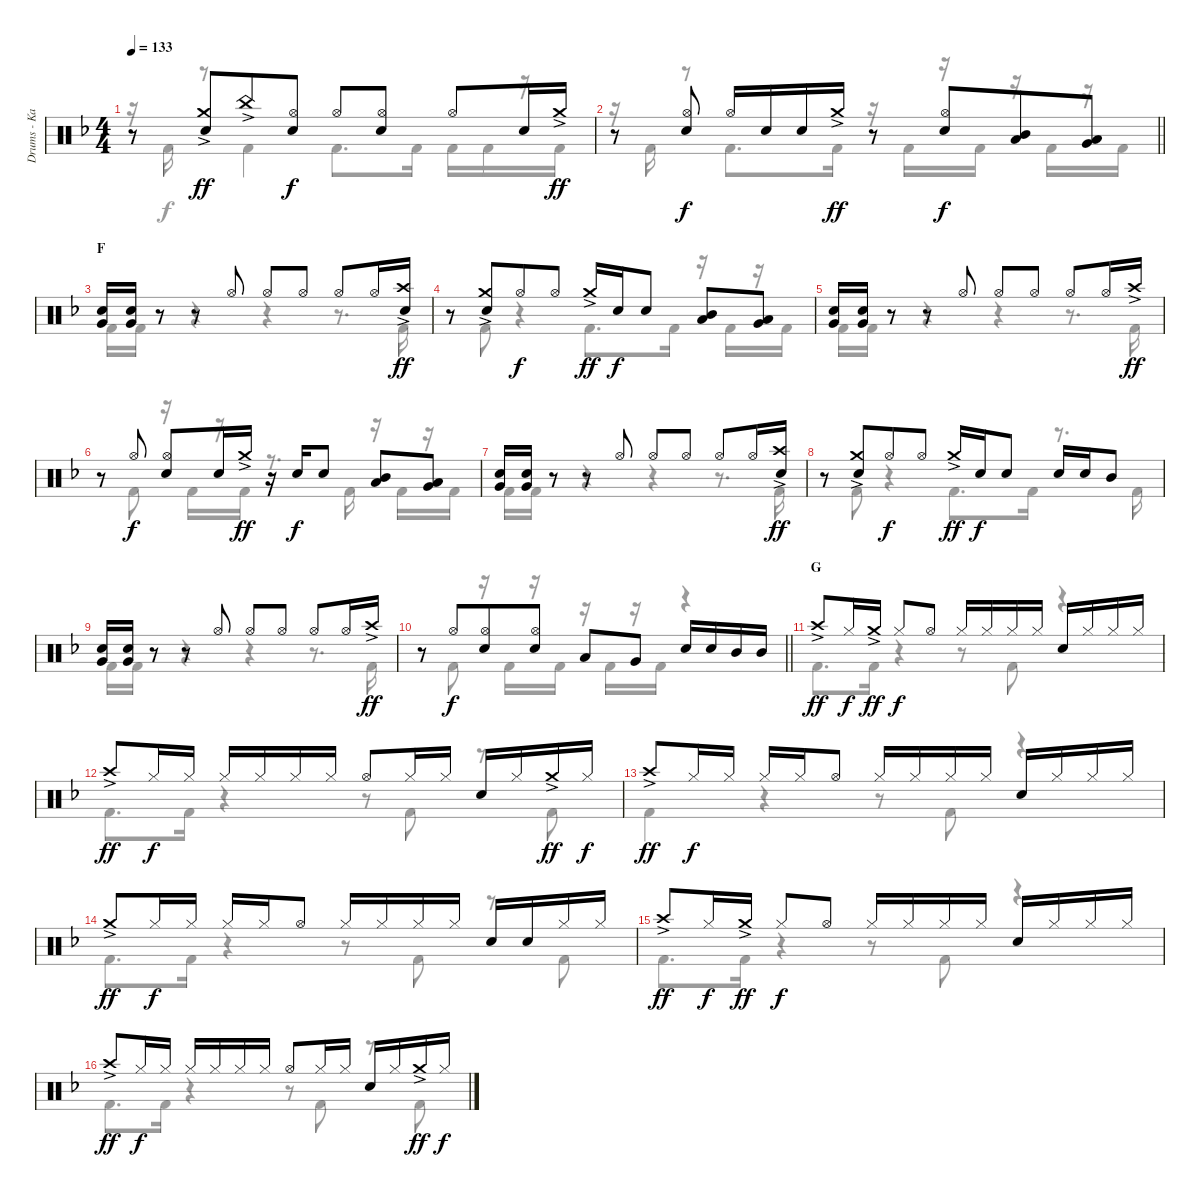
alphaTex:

\track ("Drums - Kai" "Drums - Ka") {instrument percussion}
\staff {score}
\articulation defaults
\voice
\ts (4 4)
\tempo 133
\clef neutral
\ks f
r.8{dy ff} ("Crash medium (hit)"{ac} "Snare (hit) 2").8{beam merge} "China (hit)"{ac}.8 ("Hi-Hat (open)" "Snare (hit) 2").8{dy f} "Hi-Hat (open)".8 ("Hi-Hat (open)" "Snare (hit) 2").8 "Hi-Hat (open)".8 "Snare (hit) 2".16 "Crash medium (hit)"{ac}.16{dy ff} |
\barLineRight lightlight
r.8 ("Hi-Hat (open)" "Snare (hit) 2").8{dy f} "Hi-Hat (open)".16 "Snare (hit) 2".16 "Snare (hit) 2".16 "Crash medium (hit)"{ac}.16{dy ff} r.8 ("Hi-Hat (open)" "Snare (hit) 2").8{dy f beam merge} ("Mid Tom (hit)" "Low Tom (hit)").8 ("Low Tom (hit)" "Very Low Tom (hit)").8 |
\section ("" "F")
("Very Low Tom (hit)" "Snare (hit) 2").16 ("Very Low Tom (hit)" "Snare (hit) 2").16 r.8 r.8 "Hi-Hat (open)".8 "Hi-Hat (open)".8 "Hi-Hat (open)".8 "Hi-Hat (open)".8 "Hi-Hat (open)".16 ("Crash high (hit)"{ac} "Snare (hit) 2").16{dy ff} |
r.8 ("Crash medium (hit)"{ac} "Snare (hit) 2").8{beam merge} "Hi-Hat (open)".8{dy f} "Hi-Hat (open)".8 "Crash medium (hit)"{ac}.16{dy ff} "Snare (hit) 2".16{dy f} "Snare (hit) 2".8 ("Mid Tom (hit)" "Low Tom (hit)").8 ("Low Tom (hit)" "Very Low Tom (hit)").8 |
("Very Low Tom (hit)" "Snare (hit) 2").16 ("Very Low Tom (hit)" "Snare (hit) 2").16 r.8 r.8 "Hi-Hat (open)".8 "Hi-Hat (open)".8 "Hi-Hat (open)".8 "Hi-Hat (open)".8 "Hi-Hat (open)".16 "Crash high (hit)"{ac}.16{dy ff} |
r.8 "Hi-Hat (open)".8{dy f} ("Hi-Hat (open)" "Snare (hit) 2").8 "Snare (hit) 2".16 "Crash medium (hit)"{ac}.16{dy ff} r.16 "Snare (hit) 2".16{dy f} "Snare (hit) 2".8 ("Mid Tom (hit)" "Low Tom (hit)").8 ("Low Tom (hit)" "Very Low Tom (hit)").8 |
("Very Low Tom (hit)" "Snare (hit) 2").16 ("Very Low Tom (hit)" "Snare (hit) 2").16 r.8 r.8 "Hi-Hat (open)".8 "Hi-Hat (open)".8 "Hi-Hat (open)".8 "Hi-Hat (open)".8 "Hi-Hat (open)".16 ("Crash high (hit)"{ac} "Snare (hit) 2").16{dy ff} |
r.8 ("Crash medium (hit)"{ac} "Snare (hit) 2").8{beam merge} "Hi-Hat (open)".8{dy f} "Hi-Hat (open)".8 "Crash medium (hit)"{ac}.16{dy ff} "Snare (hit) 2".16{dy f} "Snare (hit) 2".8 "Snare (hit) 2".16 "Snare (hit) 2".16 "Mid Tom (hit)".8 |
("Very Low Tom (hit)" "Snare (hit) 2").16 ("Very Low Tom (hit)" "Snare (hit) 2").16 r.8 r.8 "Hi-Hat (open)".8 "Hi-Hat (open)".8 "Hi-Hat (open)".8 "Hi-Hat (open)".8 "Hi-Hat (open)".16 "Crash high (hit)"{ac}.16{dy ff} |
\barLineRight lightlight
r.8 "Hi-Hat (open)".8{dy f beam merge} ("Hi-Hat (open)" "Snare (hit) 2").8 ("Hi-Hat (open)" "Snare (hit) 2").8 "Low Tom (hit)".8 "Very Low Tom (hit)".8 "Snare (hit) 2".16 "Snare (hit) 2".16 "Mid Tom (hit)".16 "Mid Tom (hit)".16 |
\section ("" "G")
"Crash high (hit)"{ac}.8{dy ff} "Hi-Hat (closed)".16{dy f} "Crash medium (hit)"{ac}.16{dy ff} "Hi-Hat (closed)".8{dy f} "Hi-Hat (open)".8 "Hi-Hat (closed)".16 "Hi-Hat (closed)".16 "Hi-Hat (closed)".16 "Hi-Hat (closed)".16 "Snare (hit) 2".16 "Hi-Hat (closed)".16 "Hi-Hat (closed)".16 "Hi-Hat (closed)".16 |
"Crash high (hit)"{ac}.8{dy ff} "Hi-Hat (closed)".16{dy f} "Hi-Hat (closed)".16 "Hi-Hat (closed)".16 "Hi-Hat (closed)".16 "Hi-Hat (closed)".16 "Hi-Hat (closed)".16 "Hi-Hat (open)".8 "Hi-Hat (closed)".16 "Hi-Hat (closed)".16 "Snare (hit) 2".16 "Hi-Hat (closed)".16 "Crash medium (hit)"{ac}.16{dy ff} "Hi-Hat (closed)".16{dy f} |
"Crash high (hit)"{ac}.8{dy ff} "Hi-Hat (closed)".16{dy f} "Hi-Hat (closed)".16 "Hi-Hat (closed)".16 "Hi-Hat (closed)".16 "Hi-Hat (open)".8 "Hi-Hat (closed)".16 "Hi-Hat (closed)".16 "Hi-Hat (closed)".16 "Hi-Hat (closed)".16 "Snare (hit) 2".16 "Hi-Hat (closed)".16 "Hi-Hat (closed)".16 "Hi-Hat (closed)".16 |
"Crash medium (hit)"{ac}.8{dy ff} "Hi-Hat (closed)".16{dy f} "Hi-Hat (closed)".16 "Hi-Hat (closed)".16 "Hi-Hat (closed)".16 "Hi-Hat (open)".8 "Hi-Hat (closed)".16 "Hi-Hat (closed)".16 "Hi-Hat (closed)".16 "Hi-Hat (closed)".16 "Snare (hit) 2".16 "Snare (hit) 2".16 "Hi-Hat (closed)".16 "Hi-Hat (closed)".16 |
"Crash high (hit)"{ac}.8{dy ff} "Hi-Hat (closed)".16{dy f} "Crash medium (hit)"{ac}.16{dy ff} "Hi-Hat (closed)".8{dy f} "Hi-Hat (open)".8 "Hi-Hat (closed)".16 "Hi-Hat (closed)".16 "Hi-Hat (closed)".16 "Hi-Hat (closed)".16 "Snare (hit) 2".16 "Hi-Hat (closed)".16 "Hi-Hat (closed)".16 "Hi-Hat (closed)".16 |
"Crash high (hit)"{ac}.8{dy ff} "Hi-Hat (closed)".16{dy f} "Hi-Hat (closed)".16 "Hi-Hat (closed)".16 "Hi-Hat (closed)".16 "Hi-Hat (closed)".16 "Hi-Hat (closed)".16 "Hi-Hat (open)".8 "Hi-Hat (closed)".16 "Hi-Hat (closed)".16 "Snare (hit) 2".16 "Hi-Hat (closed)".16 "Crash medium (hit)"{ac}.16{dy ff} "Hi-Hat (closed)".16{dy f}
\voice
\clef neutral
\ottava regular
\simile none
\ks f
r.16{dy f} "Kick (hit) 2".16 r.8 "Kick (hit) 2".4 "Kick (hit) 2".8{d} "Kick (hit) 2".16 "Kick (hit) 2".16 "Kick (hit) 2".16 r.16 "Kick (hit) 2".16 |
\barLineRight lightlight
r.16 "Kick (hit) 2".16 r.8 "Kick (hit) 2".8{d} "Kick (hit) 2".16 r.16 "Kick (hit) 2".16 r.16 "Kick (hit) 2".16 r.16 "Kick (hit) 2".16 r.16 "Kick (hit) 2".16 |
"Kick (hit) 2".16 "Kick (hit) 2".16 r.8 r.4 r.4 r.8{d} "Kick (hit) 2".16 |
r.8 "Kick (hit) 2".8 r.4 "Kick (hit) 2".8{d} "Kick (hit) 2".16 r.16 "Kick (hit) 2".16 r.16 "Kick (hit) 2".16 |
"Kick (hit) 2".16 "Kick (hit) 2".16 r.8 r.4 r.4 r.8{d} "Kick (hit) 2".16 |
r.8 "Kick (hit) 2".8 r.16 "Kick (hit) 2".16 r.16 "Kick (hit) 2".16 r.8{d} "Kick (hit) 2".16 r.16 "Kick (hit) 2".16 r.16 "Kick (hit) 2".16 |
"Kick (hit) 2".16 "Kick (hit) 2".16 r.8 r.4 r.4 r.8{d} "Kick (hit) 2".16 |
r.8 "Kick (hit) 2".8 r.4 "Kick (hit) 2".8{d} "Kick (hit) 2".16 r.8{d} "Kick (hit) 2".16 |
"Kick (hit) 2".16 "Kick (hit) 2".16 r.8 r.4 r.4 r.8{d} "Kick (hit) 2".16 |
\barLineRight lightlight
r.8 "Kick (hit) 2".8 r.16 "Kick (hit) 2".16 r.16 "Kick (hit) 2".16 r.16 "Kick (hit) 2".16 r.16 "Kick (hit) 2".16 r.4 |
"Kick (hit) 2".8{d} "Kick (hit) 2".16 r.4 r.8 "Kick (hit) 2".8 r.4 |
"Kick (hit) 2".8{d} "Kick (hit) 2".16 r.4 r.8 "Kick (hit) 2".8 r.8 "Kick (hit) 2".8 |
"Kick (hit) 2".4 r.4 r.8 "Kick (hit) 2".8 r.4 |
"Kick (hit) 2".8{d} "Kick (hit) 2".16 r.4 r.8 "Kick (hit) 2".8 r.8 "Kick (hit) 2".8 |
"Kick (hit) 2".8{d} "Kick (hit) 2".16 r.4 r.8 "Kick (hit) 2".8 r.4 |
"Kick (hit) 2".8{d} "Kick (hit) 2".16 r.4 r.8 "Kick (hit) 2".8 r.8 "Kick (hit) 2".8
